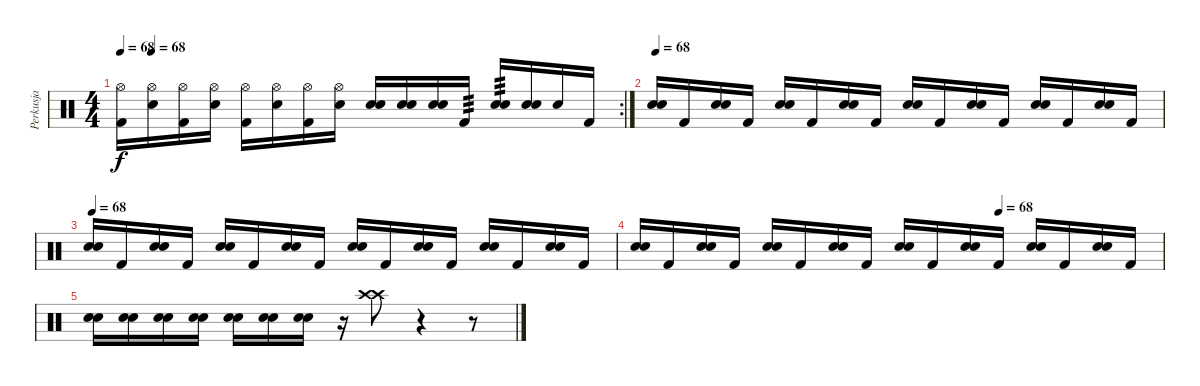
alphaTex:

\track ("Perkusja" "Perkusja") {instrument percussion}
\staff {score}
\articulation defaults
\rc 2
\ts (4 4)
\tempo 68
\tempo (68 0.0625)
\clef neutral
\ks c
("Hi-Hat (open)" "Kick (hit) 2").16{dy f} ("Hi-Hat (open)" "Electric Snare (hit)").16 ("Hi-Hat (open)" "Kick (hit) 2").16 ("Hi-Hat (open)" "Electric Snare (hit)").16 ("Hi-Hat (open)" "Kick (hit) 2").16 ("Hi-Hat (open)" "Electric Snare (hit)").16 ("Hi-Hat (open)" "Kick (hit) 2").16 ("Hi-Hat (open)" "Electric Snare (hit)").16 ("Electric Snare (hit)" "Electric Snare (hit)").16 ("Electric Snare (hit)" "Electric Snare (hit)").16 ("Electric Snare (hit)" "Electric Snare (hit)").16 "Kick (hit) 2".16{tp 3} ("Electric Snare (hit)" "Electric Snare (hit)").16{tp 3} ("Electric Snare (hit)" "Electric Snare (hit)").16 "Electric Snare (hit)".16 "Kick (hit) 2".16 |
\tempo 68
("Snare (hit) 2" "Electric Snare (hit)").16 "Kick (hit) 2".16 ("Snare (hit) 2" "Electric Snare (hit)").16 "Kick (hit) 2".16 ("Snare (hit) 2" "Electric Snare (hit)").16 "Kick (hit) 2".16 ("Snare (hit) 2" "Electric Snare (hit)").16 "Kick (hit) 2".16 ("Snare (hit) 2" "Electric Snare (hit)").16 "Kick (hit) 2".16 ("Snare (hit) 2" "Electric Snare (hit)").16 "Kick (hit) 2".16 ("Snare (hit) 2" "Electric Snare (hit)").16 "Kick (hit) 2".16 ("Snare (hit) 2" "Electric Snare (hit)").16 "Kick (hit) 2".16 |
\tempo 68
("Snare (hit) 2" "Electric Snare (hit)").16 "Kick (hit) 2".16 ("Snare (hit) 2" "Electric Snare (hit)").16 "Kick (hit) 2".16 ("Snare (hit) 2" "Electric Snare (hit)").16 "Kick (hit) 2".16 ("Snare (hit) 2" "Electric Snare (hit)").16 "Kick (hit) 2".16 ("Snare (hit) 2" "Electric Snare (hit)").16 "Kick (hit) 2".16 ("Snare (hit) 2" "Electric Snare (hit)").16 "Kick (hit) 2".16 ("Snare (hit) 2" "Electric Snare (hit)").16 "Kick (hit) 2".16 ("Snare (hit) 2" "Electric Snare (hit)").16 "Kick (hit) 2".16 |
\tempo (68 0.6875)
("Snare (hit) 2" "Electric Snare (hit)").16 "Kick (hit) 2".16 ("Snare (hit) 2" "Electric Snare (hit)").16 "Kick (hit) 2".16 ("Snare (hit) 2" "Electric Snare (hit)").16 "Kick (hit) 2".16 ("Snare (hit) 2" "Electric Snare (hit)").16 "Kick (hit) 2".16 ("Snare (hit) 2" "Electric Snare (hit)").16 "Kick (hit) 2".16 ("Snare (hit) 2" "Electric Snare (hit)").16 "Kick (hit) 2".16 ("Snare (hit) 2" "Electric Snare (hit)").16 "Kick (hit) 2".16 ("Snare (hit) 2" "Electric Snare (hit)").16 "Kick (hit) 2".16 |
("Electric Snare (hit)" "Electric Snare (hit)").16 ("Electric Snare (hit)" "Electric Snare (hit)").16 ("Electric Snare (hit)" "Electric Snare (hit)").16 ("Electric Snare (hit)" "Electric Snare (hit)").16 ("Electric Snare (hit)" "Electric Snare (hit)").16 ("Electric Snare (hit)" "Electric Snare (hit)").16 ("Electric Snare (hit)" "Electric Snare (hit)").16 r.16 ("Crash high (hit)" "Crash high (hit)").8 r.4 r.8
